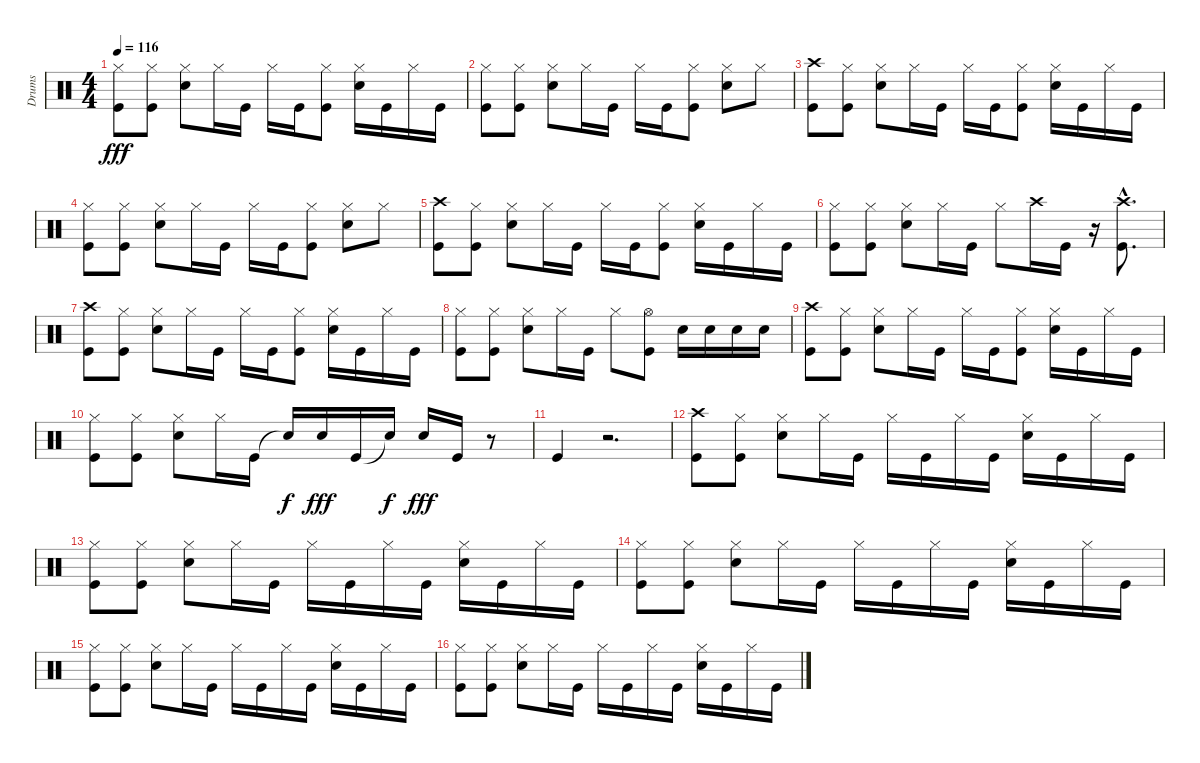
\track ("Drums" "Drums") {instrument percussion}
\staff {score}
\articulation defaults
\ts (4 4)
\tempo 116
\clef neutral
\ks c
("Hi-Hat (closed)" "Kick (hit)").8{dy fff} ("Kick (hit)" "Hi-Hat (closed)").8 ("Hi-Hat (closed)" "Snare (hit) 2").8 "Hi-Hat (closed)".16 "Kick (hit)".16 "Hi-Hat (closed)".16 "Kick (hit)".16 ("Hi-Hat (closed)" "Kick (hit)").8 ("Hi-Hat (closed)" "Snare (hit) 2").16 "Kick (hit)".16 "Hi-Hat (closed)".16 "Kick (hit)".16 |
("Hi-Hat (closed)" "Kick (hit)").8 ("Kick (hit)" "Hi-Hat (closed)").8 ("Snare (hit) 2" "Hi-Hat (closed)").8 "Hi-Hat (closed)".16 "Kick (hit)".16 "Hi-Hat (closed)".16 "Kick (hit)".16 ("Kick (hit)" "Hi-Hat (closed)").8 ("Hi-Hat (closed)" "Snare (hit) 2").8 "Hi-Hat (closed)".8 |
("Crash high (hit)" "Kick (hit)").8 ("Hi-Hat (closed)" "Kick (hit)").8 ("Hi-Hat (closed)" "Snare (hit) 2").8 "Hi-Hat (closed)".16 "Kick (hit)".16 "Hi-Hat (closed)".16 "Kick (hit)".16 ("Kick (hit)" "Hi-Hat (closed)").8 ("Snare (hit) 2" "Hi-Hat (closed)").16 "Kick (hit)".16 "Hi-Hat (closed)".16 "Kick (hit)".16 |
("Kick (hit)" "Hi-Hat (closed)").8 ("Kick (hit)" "Hi-Hat (closed)").8 ("Hi-Hat (closed)" "Snare (hit) 2").8 "Hi-Hat (closed)".16 "Kick (hit)".16 "Hi-Hat (closed)".16 "Kick (hit)".16 ("Hi-Hat (closed)" "Kick (hit)").8 ("Hi-Hat (closed)" "Snare (hit) 2").8 "Hi-Hat (closed)".8 |
("Kick (hit)" "Crash high (hit)").8 ("Hi-Hat (closed)" "Kick (hit)").8 ("Snare (hit) 2" "Hi-Hat (closed)").8 "Hi-Hat (closed)".16 "Kick (hit)".16 "Hi-Hat (closed)".16 "Kick (hit)".16 ("Hi-Hat (closed)" "Kick (hit)").8 ("Hi-Hat (closed)" "Snare (hit) 2").16 "Kick (hit)".16 "Hi-Hat (closed)".16 "Kick (hit)".16 |
("Hi-Hat (closed)" "Kick (hit)").8 ("Kick (hit)" "Hi-Hat (closed)").8 ("Hi-Hat (closed)" "Snare (hit) 2").8 "Hi-Hat (closed)".16 "Kick (hit)".16 "Hi-Hat (closed)".8 "Crash high (hit)".16 "Kick (hit)".16 r.16 ("Crash high (hit)"{hac} "Kick (hit)").8{d} |
("Crash high (hit)" "Kick (hit)").8 ("Kick (hit)" "Hi-Hat (closed)").8 ("Snare (hit) 2" "Hi-Hat (closed)").8 "Hi-Hat (closed)".16 "Kick (hit)".16 "Hi-Hat (closed)".16 "Kick (hit)".16 ("Hi-Hat (closed)" "Kick (hit)").8 ("Snare (hit) 2" "Hi-Hat (closed)").16 "Kick (hit)".16 "Hi-Hat (closed)".16 "Kick (hit)".16 |
("Kick (hit)" "Hi-Hat (closed)").8 ("Kick (hit)" "Hi-Hat (closed)").8 ("Snare (hit) 2" "Hi-Hat (closed)").8 "Hi-Hat (closed)".16 "Kick (hit)".16 "Hi-Hat (closed)".8 ("Kick (hit)" "Hi-Hat (open)").8 "Snare (hit) 2".16 "Snare (hit) 2".16 "Snare (hit) 2".16 "Snare (hit) 2".16 |
("Kick (hit)" "Crash high (hit)").8 ("Hi-Hat (closed)" "Kick (hit)").8 ("Hi-Hat (closed)" "Snare (hit) 2").8 "Hi-Hat (closed)".16 "Kick (hit)".16 "Hi-Hat (closed)".16 "Kick (hit)".16 ("Hi-Hat (closed)" "Kick (hit)").8 ("Snare (hit) 2" "Hi-Hat (closed)").16 "Kick (hit)".16 "Hi-Hat (closed)".16 "Kick (hit)".16 |
("Kick (hit)" "Hi-Hat (closed)").8 ("Kick (hit)" "Hi-Hat (closed)").8 ("Snare (hit) 2" "Hi-Hat (closed)").8 "Hi-Hat (closed)".16 "Kick (hit)".16 "Snare (hit)"{t}.16{dy f} "Snare (hit) 2".16{dy fff} "Kick (hit)".16 "Snare (hit)"{t}.16{dy f} "Snare (hit) 2".16{dy fff} "Kick (hit)".16 r.8 |
"Kick (hit)".4 r.2{d} |
("Kick (hit)" "Crash high (hit)").8 ("Hi-Hat (closed)" "Kick (hit)").8 ("Snare (hit) 2" "Hi-Hat (closed)").8 "Hi-Hat (closed)".16 "Kick (hit)".16 "Hi-Hat (closed)".16 "Kick (hit)".16 "Hi-Hat (closed)".16 "Kick (hit)".16 ("Hi-Hat (closed)" "Snare (hit) 2").16 "Kick (hit)".16 "Hi-Hat (closed)".16 "Kick (hit)".16 |
("Kick (hit)" "Hi-Hat (closed)").8 ("Kick (hit)" "Hi-Hat (closed)").8 ("Hi-Hat (closed)" "Snare (hit) 2").8 "Hi-Hat (closed)".16 "Kick (hit)".16 "Hi-Hat (closed)".16 "Kick (hit)".16 "Hi-Hat (closed)".16 "Kick (hit)".16 ("Hi-Hat (closed)" "Snare (hit) 2").16 "Kick (hit)".16 "Hi-Hat (closed)".16 "Kick (hit)".16 |
("Hi-Hat (closed)" "Kick (hit)").8 ("Hi-Hat (closed)" "Kick (hit)").8 ("Snare (hit) 2" "Hi-Hat (closed)").8 "Hi-Hat (closed)".16 "Kick (hit)".16 "Hi-Hat (closed)".16 "Kick (hit)".16 "Hi-Hat (closed)".16 "Kick (hit)".16 ("Snare (hit) 2" "Hi-Hat (closed)").16 "Kick (hit)".16 "Hi-Hat (closed)".16 "Kick (hit)".16 |
("Hi-Hat (closed)" "Kick (hit)").8 ("Kick (hit)" "Hi-Hat (closed)").8 ("Snare (hit) 2" "Hi-Hat (closed)").8 "Hi-Hat (closed)".16 "Kick (hit)".16 "Hi-Hat (closed)".16 "Kick (hit)".16 "Hi-Hat (closed)".16 "Kick (hit)".16 ("Hi-Hat (closed)" "Snare (hit) 2").16 "Kick (hit)".16 "Hi-Hat (closed)".16 "Kick (hit)".16 |
("Hi-Hat (closed)" "Kick (hit)").8 ("Kick (hit)" "Hi-Hat (closed)").8 ("Snare (hit) 2" "Hi-Hat (closed)").8 "Hi-Hat (closed)".16 "Kick (hit)".16 "Hi-Hat (closed)".16 "Kick (hit)".16 "Hi-Hat (closed)".16 "Kick (hit)".16 ("Hi-Hat (closed)" "Snare (hit) 2").16 "Kick (hit)".16 "Hi-Hat (closed)".16 "Kick (hit)".16
